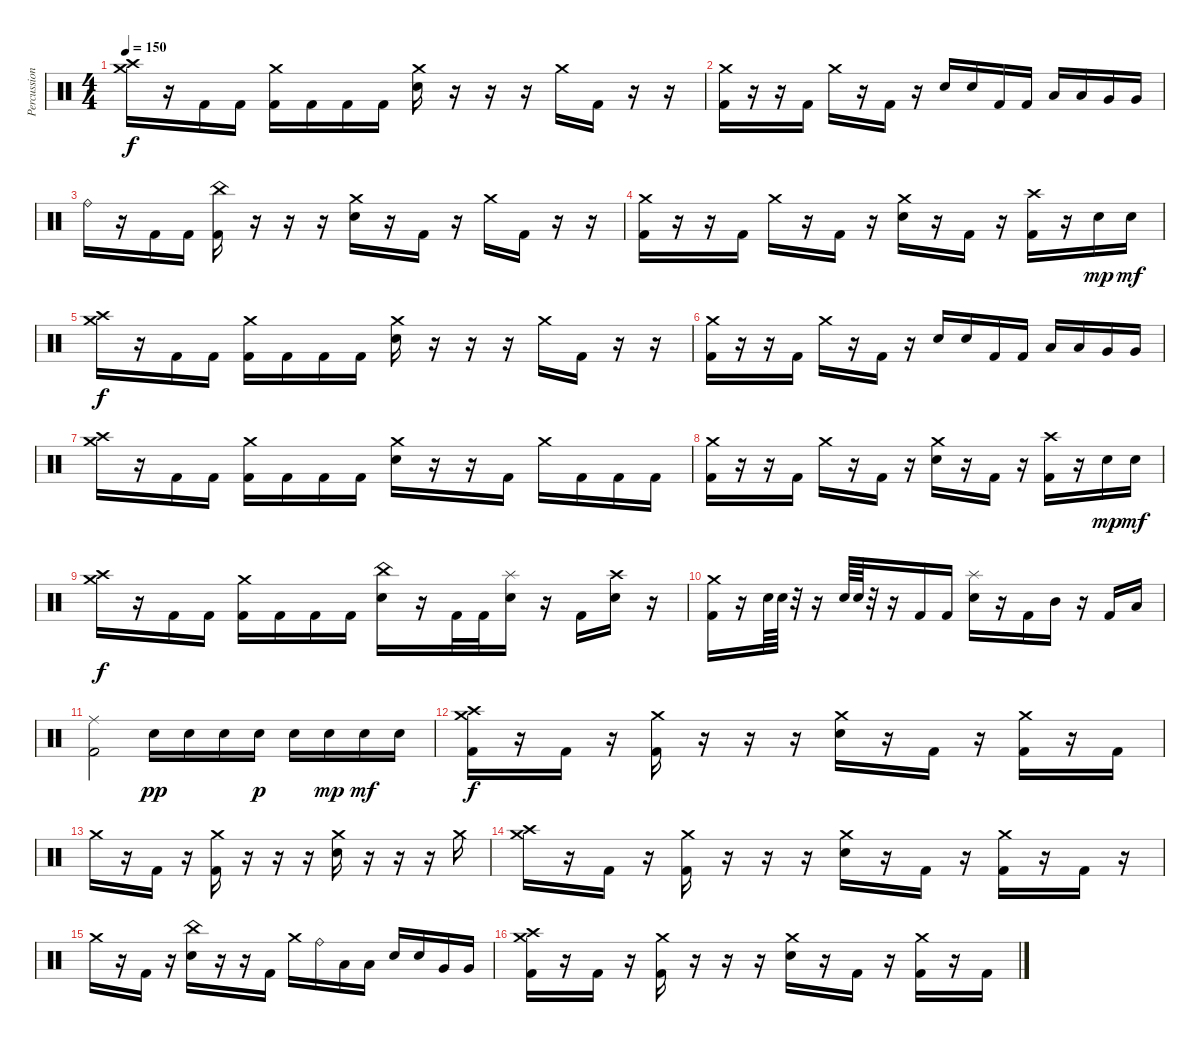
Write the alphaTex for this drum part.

\track ("Percussioni" "Percussion") {instrument percussion}
\staff {score}
\articulation defaults
\ts (4 4)
\tempo 150
\clef neutral
\ks c
("Crash high (hit)" "Crash medium (hit)").16{dy f} r.16 "Kick (hit) 2".16 "Kick (hit) 2".16 ("Kick (hit) 2" "Crash medium (hit)").16 "Kick (hit) 2".16 "Kick (hit) 2".16 "Kick (hit) 2".16 ("Snare (hit) 2" "Crash medium (hit)").16 r.16 r.16 r.16 "Crash medium (hit)".16 "Kick (hit) 2".16 r.16 r.16 |
("Crash medium (hit)" "Kick (hit) 2").16 r.16 r.16 "Kick (hit) 2".16 "Crash medium (hit)".16 r.16 "Kick (hit) 2".16 r.16 "Snare (hit) 2".16 "Snare (hit) 2".16 "Kick (hit) 2".16 "Kick (hit) 2".16 "Low Tom (hit)".16 "Low Tom (hit)".16 "Very Low Tom (hit)".16 "Very Low Tom (hit)".16 |
"Ride (bell)".16 r.16 "Kick (hit) 2".16 "Kick (hit) 2".16 ("Kick (hit) 2" "China (hit)").16 r.16 r.16 r.16 ("Snare (hit) 2" "Crash medium (hit)").16 r.16 "Kick (hit) 2".16 r.16 "Crash medium (hit)".16 "Kick (hit) 2".16 r.16 r.16 |
("Crash medium (hit)" "Kick (hit) 2").16 r.16 r.16 "Kick (hit) 2".16 "Crash medium (hit)".16 r.16 "Kick (hit) 2".16 r.16 ("Snare (hit) 2" "Crash medium (hit)").16 r.16 "Kick (hit) 2".16 r.16 ("Kick (hit) 2" "Crash high (hit)").16 r.16 "Snare (hit) 2".16{dy mp} "Snare (hit) 2".16{dy mf} |
("Crash high (hit)" "Crash medium (hit)").16{dy f} r.16 "Kick (hit) 2".16 "Kick (hit) 2".16 ("Kick (hit) 2" "Crash medium (hit)").16 "Kick (hit) 2".16 "Kick (hit) 2".16 "Kick (hit) 2".16 ("Snare (hit) 2" "Crash medium (hit)").16 r.16 r.16 r.16 "Crash medium (hit)".16 "Kick (hit) 2".16 r.16 r.16 |
("Crash medium (hit)" "Kick (hit) 2").16 r.16 r.16 "Kick (hit) 2".16 "Crash medium (hit)".16 r.16 "Kick (hit) 2".16 r.16 "Snare (hit) 2".16 "Snare (hit) 2".16 "Kick (hit) 2".16 "Kick (hit) 2".16 "Low Tom (hit)".16 "Low Tom (hit)".16 "Very Low Tom (hit)".16 "Very Low Tom (hit)".16 |
("Crash high (hit)" "Crash medium (hit)").16 r.16 "Kick (hit) 2".16 "Kick (hit) 2".16 ("Kick (hit) 2" "Crash medium (hit)").16 "Kick (hit) 2".16 "Kick (hit) 2".16 "Kick (hit) 2".16 ("Snare (hit) 2" "Crash medium (hit)").16 r.16 r.16 "Kick (hit) 2".16 "Crash medium (hit)".16 "Kick (hit) 2".16 "Kick (hit) 2".16 "Kick (hit) 2".16 |
("Crash medium (hit)" "Kick (hit) 2").16 r.16 r.16 "Kick (hit) 2".16 "Crash medium (hit)".16 r.16 "Kick (hit) 2".16 r.16 ("Snare (hit) 2" "Crash medium (hit)").16 r.16 "Kick (hit) 2".16 r.16 ("Kick (hit) 2" "Crash high (hit)").16 r.16 "Snare (hit) 2".16{dy mp} "Snare (hit) 2".16{dy mf} |
("Crash high (hit)" "Crash medium (hit)").16{dy f} r.16 "Kick (hit) 2".16 "Kick (hit) 2".16 ("Kick (hit) 2" "Crash medium (hit)").16 "Kick (hit) 2".16 "Kick (hit) 2".16 "Kick (hit) 2".16 ("Snare (hit) 2" "China (hit)").16 r.16 "Kick (hit) 2".32 "Kick (hit) 2".32 ("Snare (hit) 2" "Splash (hit)").16 r.16 "Kick (hit) 2".16 ("Snare (hit) 2" "Crash high (hit)").16 r.16 |
("Crash medium (hit)" "Kick (hit) 2").16 r.16 "Snare (hit) 2".64 "Snare (hit) 2".64 r.32 r.16 "Snare (hit) 2".64 "Snare (hit) 2".64 r.32 r.16 "Kick (hit) 2".16 "Kick (hit) 2".16 ("Splash (hit)" "Snare (hit) 2").16 r.16 "Kick (hit) 2".16 "Mid Tom (hit)".16 r.16 "Kick (hit) 2".16 "Low Tom (hit)".16 |
("Kick (hit) 2" "Ride (middle)").2 "Snare (hit) 2".16{dy pp} "Snare (hit) 2".16 "Snare (hit) 2".16 "Snare (hit) 2".16{dy p} "Snare (hit) 2".16 "Snare (hit) 2".16{dy mp} "Snare (hit) 2".16{dy mf} "Snare (hit) 2".16 |
("Crash high (hit)" "Kick (hit) 2" "Crash medium (hit)").16{dy f} r.16 "Kick (hit) 2".16 r.16 ("Kick (hit) 2" "Crash medium (hit)").16 r.16 r.16 r.16 ("Crash medium (hit)" "Snare (hit) 2").16 r.16 "Kick (hit) 2".16 r.16 ("Kick (hit) 2" "Crash medium (hit)").16 r.16 "Kick (hit) 2".16 |
"Crash medium (hit)".16 r.16 "Kick (hit) 2".16 r.16 ("Kick (hit) 2" "Crash medium (hit)").16 r.16 r.16 r.16 ("Crash medium (hit)" "Snare (hit) 2").16 r.16 r.16 r.16 "Crash medium (hit)".16 |
("Crash medium (hit)" "Crash high (hit)").16 r.16 "Kick (hit) 2".16 r.16 ("Kick (hit) 2" "Crash medium (hit)").16 r.16 r.16 r.16 ("Snare (hit) 2" "Crash medium (hit)").16 r.16 "Kick (hit) 2".16 r.16 ("Kick (hit) 2" "Crash medium (hit)").16 r.16 "Kick (hit) 2".16 r.16 |
"Crash medium (hit)".16 r.16 "Kick (hit) 2".16 r.16 ("Snare (hit) 2" "China (hit)").16 r.16 r.16 "Kick (hit) 2".16 "Crash medium (hit)".16 "Ride (bell)".16 "Low Tom (hit)".16 "Low Tom (hit)".16 "Snare (hit) 2".16 "Snare (hit) 2".16 "Very Low Tom (hit)".16 "Very Low Tom (hit)".16 |
("Crash high (hit)" "Kick (hit) 2" "Crash medium (hit)").16 r.16 "Kick (hit) 2".16 r.16 ("Kick (hit) 2" "Crash medium (hit)").16 r.16 r.16 r.16 ("Crash medium (hit)" "Snare (hit) 2").16 r.16 "Kick (hit) 2".16 r.16 ("Kick (hit) 2" "Crash medium (hit)").16 r.16 "Kick (hit) 2".16
